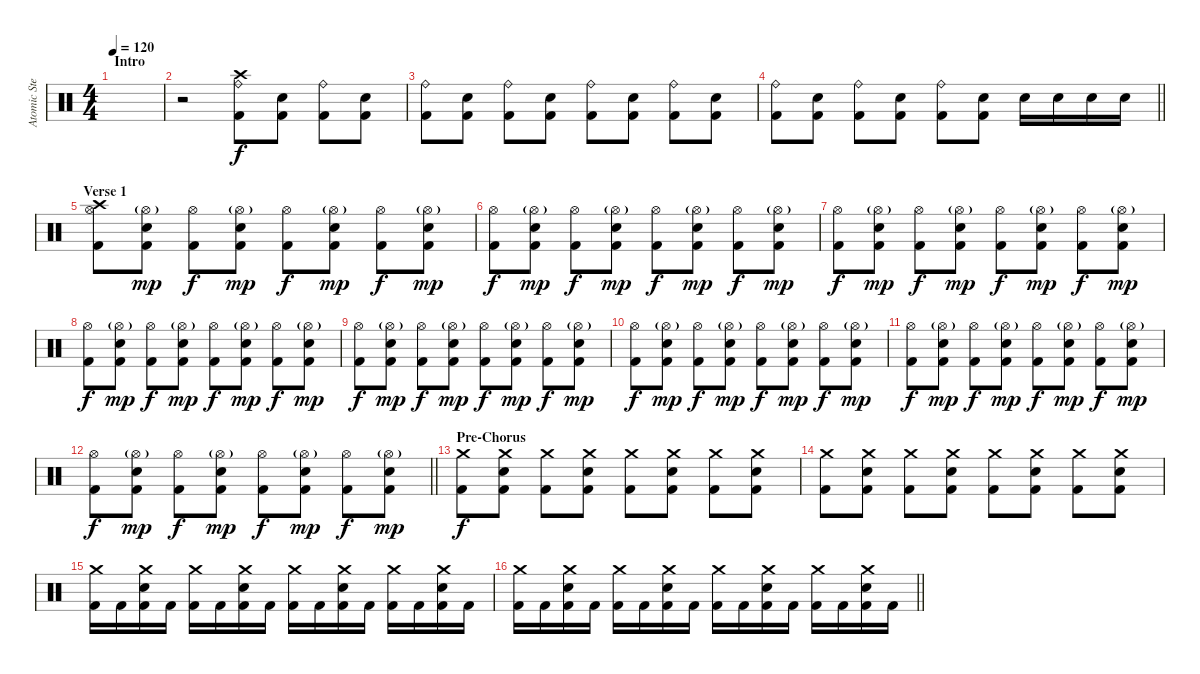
\track ("Atomic Steif" "Atomic Ste") {instrument percussion}
\staff {score}
\articulation defaults
\ts (4 4)
\section ("" "Intro")
\tempo 120
\clef neutral
\ks c
|
r.2 ("Crash high (hit)" "Ride (bell)" "Kick (hit) 2").8 ("Electric Snare (hit)" "Kick (hit) 2").8 ("Ride (bell)" "Kick (hit) 2").8 ("Electric Snare (hit)" "Kick (hit) 2").8 |
("Ride (bell)" "Kick (hit) 2").8 ("Electric Snare (hit)" "Kick (hit) 2").8 ("Ride (bell)" "Kick (hit) 2").8 ("Electric Snare (hit)" "Kick (hit) 2").8 ("Ride (bell)" "Kick (hit) 2").8 ("Electric Snare (hit)" "Kick (hit) 2").8 ("Ride (bell)" "Kick (hit) 2").8 ("Electric Snare (hit)" "Kick (hit) 2").8 |
\barLineRight lightlight
("Ride (bell)" "Kick (hit) 2").8 ("Electric Snare (hit)" "Kick (hit) 2").8 ("Ride (bell)" "Kick (hit) 2").8 ("Electric Snare (hit)" "Kick (hit) 2").8 ("Ride (bell)" "Kick (hit) 2").8 ("Electric Snare (hit)" "Kick (hit) 2").8 "Electric Snare (hit)".16 "Electric Snare (hit)".16 "Electric Snare (hit)".16 "Electric Snare (hit)".16 |
\section ("" "Verse 1")
("Crash high (hit)" "Hi-Hat (open)" "Kick (hit) 2").8 ("Hi-Hat (open)"{g} "Electric Snare (hit)" "Kick (hit) 2").8{dy mp} ("Hi-Hat (open)" "Kick (hit) 2").8{dy f} ("Hi-Hat (open)"{g} "Electric Snare (hit)" "Kick (hit) 2").8{dy mp} ("Hi-Hat (open)" "Kick (hit) 2").8{dy f} ("Hi-Hat (open)"{g} "Electric Snare (hit)" "Kick (hit) 2").8{dy mp} ("Hi-Hat (open)" "Kick (hit) 2").8{dy f} ("Hi-Hat (open)"{g} "Electric Snare (hit)" "Kick (hit) 2").8{dy mp} |
("Hi-Hat (open)" "Kick (hit) 2").8{dy f} ("Hi-Hat (open)"{g} "Electric Snare (hit)" "Kick (hit) 2").8{dy mp} ("Hi-Hat (open)" "Kick (hit) 2").8{dy f} ("Hi-Hat (open)"{g} "Electric Snare (hit)" "Kick (hit) 2").8{dy mp} ("Hi-Hat (open)" "Kick (hit) 2").8{dy f} ("Hi-Hat (open)"{g} "Electric Snare (hit)" "Kick (hit) 2").8{dy mp} ("Hi-Hat (open)" "Kick (hit) 2").8{dy f} ("Hi-Hat (open)"{g} "Electric Snare (hit)" "Kick (hit) 2").8{dy mp} |
("Hi-Hat (open)" "Kick (hit) 2").8{dy f} ("Hi-Hat (open)"{g} "Electric Snare (hit)" "Kick (hit) 2").8{dy mp} ("Hi-Hat (open)" "Kick (hit) 2").8{dy f} ("Hi-Hat (open)"{g} "Electric Snare (hit)" "Kick (hit) 2").8{dy mp} ("Hi-Hat (open)" "Kick (hit) 2").8{dy f} ("Hi-Hat (open)"{g} "Electric Snare (hit)" "Kick (hit) 2").8{dy mp} ("Hi-Hat (open)" "Kick (hit) 2").8{dy f} ("Hi-Hat (open)"{g} "Electric Snare (hit)" "Kick (hit) 2").8{dy mp} |
("Hi-Hat (open)" "Kick (hit) 2").8{dy f} ("Hi-Hat (open)"{g} "Electric Snare (hit)" "Kick (hit) 2").8{dy mp} ("Hi-Hat (open)" "Kick (hit) 2").8{dy f} ("Hi-Hat (open)"{g} "Electric Snare (hit)" "Kick (hit) 2").8{dy mp} ("Hi-Hat (open)" "Kick (hit) 2").8{dy f} ("Hi-Hat (open)"{g} "Electric Snare (hit)" "Kick (hit) 2").8{dy mp} ("Hi-Hat (open)" "Kick (hit) 2").8{dy f} ("Hi-Hat (open)"{g} "Electric Snare (hit)" "Kick (hit) 2").8{dy mp} |
("Hi-Hat (open)" "Kick (hit) 2").8{dy f} ("Hi-Hat (open)"{g} "Electric Snare (hit)" "Kick (hit) 2").8{dy mp} ("Hi-Hat (open)" "Kick (hit) 2").8{dy f} ("Hi-Hat (open)"{g} "Electric Snare (hit)" "Kick (hit) 2").8{dy mp} ("Hi-Hat (open)" "Kick (hit) 2").8{dy f} ("Hi-Hat (open)"{g} "Electric Snare (hit)" "Kick (hit) 2").8{dy mp} ("Hi-Hat (open)" "Kick (hit) 2").8{dy f} ("Hi-Hat (open)"{g} "Electric Snare (hit)" "Kick (hit) 2").8{dy mp} |
("Hi-Hat (open)" "Kick (hit) 2").8{dy f} ("Hi-Hat (open)"{g} "Electric Snare (hit)" "Kick (hit) 2").8{dy mp} ("Hi-Hat (open)" "Kick (hit) 2").8{dy f} ("Hi-Hat (open)"{g} "Electric Snare (hit)" "Kick (hit) 2").8{dy mp} ("Hi-Hat (open)" "Kick (hit) 2").8{dy f} ("Hi-Hat (open)"{g} "Electric Snare (hit)" "Kick (hit) 2").8{dy mp} ("Hi-Hat (open)" "Kick (hit) 2").8{dy f} ("Hi-Hat (open)"{g} "Electric Snare (hit)" "Kick (hit) 2").8{dy mp} |
("Hi-Hat (open)" "Kick (hit) 2").8{dy f} ("Hi-Hat (open)"{g} "Electric Snare (hit)" "Kick (hit) 2").8{dy mp} ("Hi-Hat (open)" "Kick (hit) 2").8{dy f} ("Hi-Hat (open)"{g} "Electric Snare (hit)" "Kick (hit) 2").8{dy mp} ("Hi-Hat (open)" "Kick (hit) 2").8{dy f} ("Hi-Hat (open)"{g} "Electric Snare (hit)" "Kick (hit) 2").8{dy mp} ("Hi-Hat (open)" "Kick (hit) 2").8{dy f} ("Hi-Hat (open)"{g} "Electric Snare (hit)" "Kick (hit) 2").8{dy mp} |
\barLineRight lightlight
("Hi-Hat (open)" "Kick (hit) 2").8{dy f} ("Hi-Hat (open)"{g} "Electric Snare (hit)" "Kick (hit) 2").8{dy mp} ("Hi-Hat (open)" "Kick (hit) 2").8{dy f} ("Hi-Hat (open)"{g} "Electric Snare (hit)" "Kick (hit) 2").8{dy mp} ("Hi-Hat (open)" "Kick (hit) 2").8{dy f} ("Hi-Hat (open)"{g} "Electric Snare (hit)" "Kick (hit) 2").8{dy mp} ("Hi-Hat (open)" "Kick (hit) 2").8{dy f} ("Hi-Hat (open)"{g} "Electric Snare (hit)" "Kick (hit) 2").8{dy mp} |
\section ("" "Pre-Chorus")
("Crash medium (hit)" "Kick (hit) 2").8{dy f} ("Crash medium (hit)" "Electric Snare (hit)" "Kick (hit) 2").8 ("Crash medium (hit)" "Kick (hit) 2").8 ("Crash medium (hit)" "Electric Snare (hit)" "Kick (hit) 2").8 ("Crash medium (hit)" "Kick (hit) 2").8 ("Crash medium (hit)" "Electric Snare (hit)" "Kick (hit) 2").8 ("Crash medium (hit)" "Kick (hit) 2").8 ("Crash medium (hit)" "Electric Snare (hit)" "Kick (hit) 2").8 |
("Crash medium (hit)" "Kick (hit) 2").8 ("Crash medium (hit)" "Electric Snare (hit)" "Kick (hit) 2").8 ("Crash medium (hit)" "Kick (hit) 2").8 ("Crash medium (hit)" "Electric Snare (hit)" "Kick (hit) 2").8 ("Crash medium (hit)" "Kick (hit) 2").8 ("Crash medium (hit)" "Electric Snare (hit)" "Kick (hit) 2").8 ("Crash medium (hit)" "Kick (hit) 2").8 ("Crash medium (hit)" "Electric Snare (hit)" "Kick (hit) 2").8 |
("Crash medium (hit)" "Kick (hit) 2").16 "Kick (hit) 2".16 ("Crash medium (hit)" "Electric Snare (hit)" "Kick (hit) 2").16 "Kick (hit) 2".16 ("Crash medium (hit)" "Kick (hit) 2").16 "Kick (hit) 2".16 ("Crash medium (hit)" "Electric Snare (hit)" "Kick (hit) 2").16 "Kick (hit) 2".16 ("Crash medium (hit)" "Kick (hit) 2").16 "Kick (hit) 2".16 ("Crash medium (hit)" "Electric Snare (hit)" "Kick (hit) 2").16 "Kick (hit) 2".16 ("Crash medium (hit)" "Kick (hit) 2").16 "Kick (hit) 2".16 ("Crash medium (hit)" "Electric Snare (hit)" "Kick (hit) 2").16 "Kick (hit) 2".16 |
\barLineRight lightlight
("Crash medium (hit)" "Kick (hit) 2").16 "Kick (hit) 2".16 ("Crash medium (hit)" "Electric Snare (hit)" "Kick (hit) 2").16 "Kick (hit) 2".16 ("Crash medium (hit)" "Kick (hit) 2").16 "Kick (hit) 2".16 ("Crash medium (hit)" "Electric Snare (hit)" "Kick (hit) 2").16 "Kick (hit) 2".16 ("Crash medium (hit)" "Kick (hit) 2").16 "Kick (hit) 2".16 ("Crash medium (hit)" "Electric Snare (hit)" "Kick (hit) 2").16 "Kick (hit) 2".16 ("Crash medium (hit)" "Kick (hit) 2").16 "Kick (hit) 2".16 ("Crash medium (hit)" "Electric Snare (hit)" "Kick (hit) 2").16 "Kick (hit) 2".16
